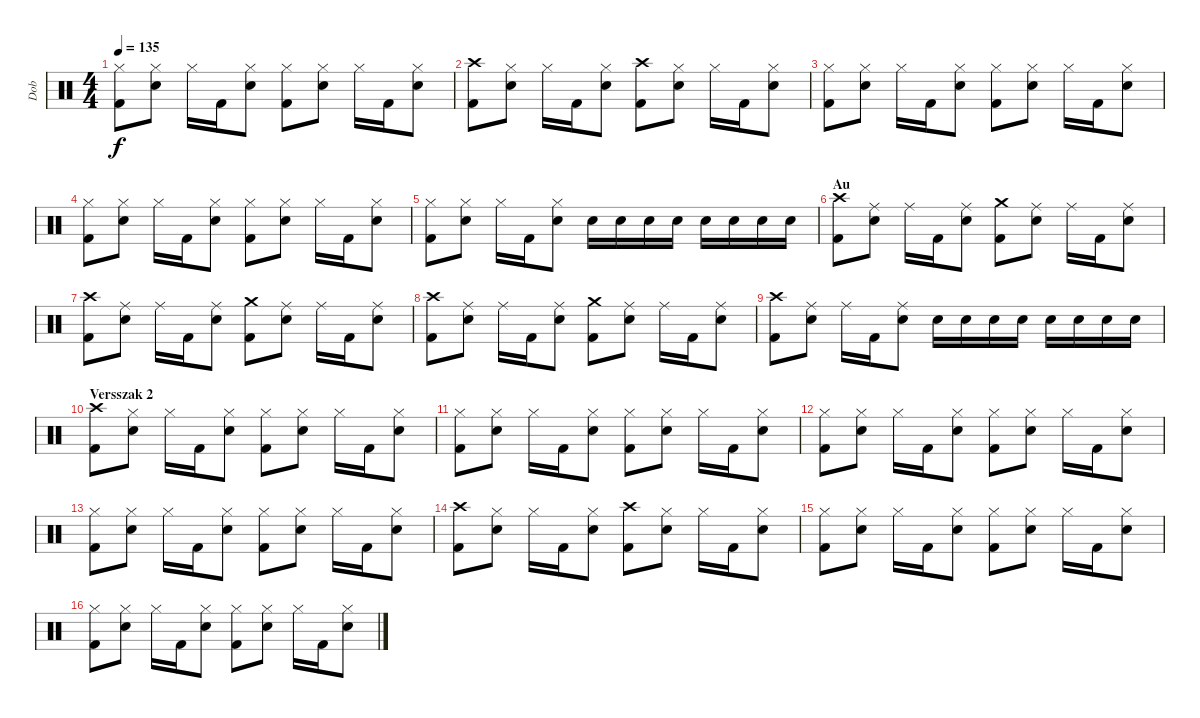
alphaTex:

\track ("Dob" "Dob") {instrument percussion}
\staff {score}
\articulation defaults
\ts (4 4)
\tempo 135
\clef neutral
\ks c
("Hi-Hat (closed)" "Kick (hit) 2").8{dy f} ("Hi-Hat (closed)" "Snare (hit) 2").8 "Hi-Hat (closed)".16 "Kick (hit) 2".16 ("Hi-Hat (closed)" "Snare (hit) 2").8 ("Hi-Hat (closed)" "Kick (hit) 2").8 ("Hi-Hat (closed)" "Snare (hit) 2").8 "Hi-Hat (closed)".16 "Kick (hit) 2".16 ("Hi-Hat (closed)" "Snare (hit) 2").8 |
("Crash high (hit)" "Kick (hit) 2").8 ("Hi-Hat (closed)" "Snare (hit) 2").8 "Hi-Hat (closed)".16 "Kick (hit) 2".16 ("Hi-Hat (closed)" "Snare (hit) 2").8 ("Crash high (hit)" "Kick (hit) 2").8 ("Hi-Hat (closed)" "Snare (hit) 2").8 "Hi-Hat (closed)".16 "Kick (hit) 2".16 ("Hi-Hat (closed)" "Snare (hit) 2").8 |
("Hi-Hat (closed)" "Kick (hit) 2").8 ("Hi-Hat (closed)" "Snare (hit) 2").8 "Hi-Hat (closed)".16 "Kick (hit) 2".16 ("Hi-Hat (closed)" "Snare (hit) 2").8 ("Hi-Hat (closed)" "Kick (hit) 2").8 ("Hi-Hat (closed)" "Snare (hit) 2").8 "Hi-Hat (closed)".16 "Kick (hit) 2".16 ("Hi-Hat (closed)" "Snare (hit) 2").8 |
("Hi-Hat (closed)" "Kick (hit) 2").8 ("Hi-Hat (closed)" "Snare (hit) 2").8 "Hi-Hat (closed)".16 "Kick (hit) 2".16 ("Hi-Hat (closed)" "Snare (hit) 2").8 ("Hi-Hat (closed)" "Kick (hit) 2").8 ("Hi-Hat (closed)" "Snare (hit) 2").8 "Hi-Hat (closed)".16 "Kick (hit) 2".16 ("Hi-Hat (closed)" "Snare (hit) 2").8 |
("Hi-Hat (closed)" "Kick (hit) 2").8 ("Hi-Hat (closed)" "Snare (hit) 2").8 "Hi-Hat (closed)".16 "Kick (hit) 2".16 ("Hi-Hat (closed)" "Snare (hit) 2").8 "Snare (hit) 2".16 "Snare (hit) 2".16 "Snare (hit) 2".16 "Snare (hit) 2".16 "Snare (hit) 2".16 "Snare (hit) 2".16 "Snare (hit) 2".16 "Snare (hit) 2".16 |
\section ("" "Au")
("Crash high (hit)" "Kick (hit) 2").8 ("Ride (middle)" "Snare (hit) 2").8 "Ride (middle)".16 "Kick (hit) 2".16 ("Ride (middle)" "Snare (hit) 2").8 ("Crash medium (hit)" "Kick (hit) 2").8 ("Ride (middle)" "Snare (hit) 2").8 "Ride (middle)".16 "Kick (hit) 2".16 ("Ride (middle)" "Snare (hit) 2").8 |
("Crash high (hit)" "Kick (hit) 2").8 ("Ride (middle)" "Snare (hit) 2").8 "Ride (middle)".16 "Kick (hit) 2".16 ("Ride (middle)" "Snare (hit) 2").8 ("Crash medium (hit)" "Kick (hit) 2").8 ("Ride (middle)" "Snare (hit) 2").8 "Ride (middle)".16 "Kick (hit) 2".16 ("Ride (middle)" "Snare (hit) 2").8 |
("Crash high (hit)" "Kick (hit) 2").8 ("Ride (middle)" "Snare (hit) 2").8 "Ride (middle)".16 "Kick (hit) 2".16 ("Ride (middle)" "Snare (hit) 2").8 ("Crash medium (hit)" "Kick (hit) 2").8 ("Ride (middle)" "Snare (hit) 2").8 "Ride (middle)".16 "Kick (hit) 2".16 ("Ride (middle)" "Snare (hit) 2").8 |
("Crash high (hit)" "Kick (hit) 2").8 ("Ride (middle)" "Snare (hit) 2").8 "Ride (middle)".16 "Kick (hit) 2".16 ("Ride (middle)" "Snare (hit) 2").8 "Snare (hit) 2".16 "Snare (hit) 2".16 "Snare (hit) 2".16 "Snare (hit) 2".16 "Snare (hit) 2".16 "Snare (hit) 2".16 "Snare (hit) 2".16 "Snare (hit) 2".16 |
\section ("" "Versszak 2")
("Crash high (hit)" "Kick (hit) 2").8 ("Hi-Hat (closed)" "Snare (hit) 2").8 "Hi-Hat (closed)".16 "Kick (hit) 2".16 ("Hi-Hat (closed)" "Snare (hit) 2").8 ("Hi-Hat (closed)" "Kick (hit) 2").8 ("Hi-Hat (closed)" "Snare (hit) 2").8 "Hi-Hat (closed)".16 "Kick (hit) 2".16 ("Hi-Hat (closed)" "Snare (hit) 2").8 |
("Hi-Hat (closed)" "Kick (hit) 2").8 ("Hi-Hat (closed)" "Snare (hit) 2").8 "Hi-Hat (closed)".16 "Kick (hit) 2".16 ("Hi-Hat (closed)" "Snare (hit) 2").8 ("Hi-Hat (closed)" "Kick (hit) 2").8 ("Hi-Hat (closed)" "Snare (hit) 2").8 "Hi-Hat (closed)".16 "Kick (hit) 2".16 ("Hi-Hat (closed)" "Snare (hit) 2").8 |
("Hi-Hat (closed)" "Kick (hit) 2").8 ("Hi-Hat (closed)" "Snare (hit) 2").8 "Hi-Hat (closed)".16 "Kick (hit) 2".16 ("Hi-Hat (closed)" "Snare (hit) 2").8 ("Hi-Hat (closed)" "Kick (hit) 2").8 ("Hi-Hat (closed)" "Snare (hit) 2").8 "Hi-Hat (closed)".16 "Kick (hit) 2".16 ("Hi-Hat (closed)" "Snare (hit) 2").8 |
("Hi-Hat (closed)" "Kick (hit) 2").8 ("Hi-Hat (closed)" "Snare (hit) 2").8 "Hi-Hat (closed)".16 "Kick (hit) 2".16 ("Hi-Hat (closed)" "Snare (hit) 2").8 ("Hi-Hat (closed)" "Kick (hit) 2").8 ("Hi-Hat (closed)" "Snare (hit) 2").8 "Hi-Hat (closed)".16 "Kick (hit) 2".16 ("Hi-Hat (closed)" "Snare (hit) 2").8 |
("Crash high (hit)" "Kick (hit) 2").8 ("Hi-Hat (closed)" "Snare (hit) 2").8 "Hi-Hat (closed)".16 "Kick (hit) 2".16 ("Hi-Hat (closed)" "Snare (hit) 2").8 ("Crash high (hit)" "Kick (hit) 2").8 ("Hi-Hat (closed)" "Snare (hit) 2").8 "Hi-Hat (closed)".16 "Kick (hit) 2".16 ("Hi-Hat (closed)" "Snare (hit) 2").8 |
("Hi-Hat (closed)" "Kick (hit) 2").8 ("Hi-Hat (closed)" "Snare (hit) 2").8 "Hi-Hat (closed)".16 "Kick (hit) 2".16 ("Hi-Hat (closed)" "Snare (hit) 2").8 ("Hi-Hat (closed)" "Kick (hit) 2").8 ("Hi-Hat (closed)" "Snare (hit) 2").8 "Hi-Hat (closed)".16 "Kick (hit) 2".16 ("Hi-Hat (closed)" "Snare (hit) 2").8 |
("Hi-Hat (closed)" "Kick (hit) 2").8 ("Hi-Hat (closed)" "Snare (hit) 2").8 "Hi-Hat (closed)".16 "Kick (hit) 2".16 ("Hi-Hat (closed)" "Snare (hit) 2").8 ("Hi-Hat (closed)" "Kick (hit) 2").8 ("Hi-Hat (closed)" "Snare (hit) 2").8 "Hi-Hat (closed)".16 "Kick (hit) 2".16 ("Hi-Hat (closed)" "Snare (hit) 2").8
